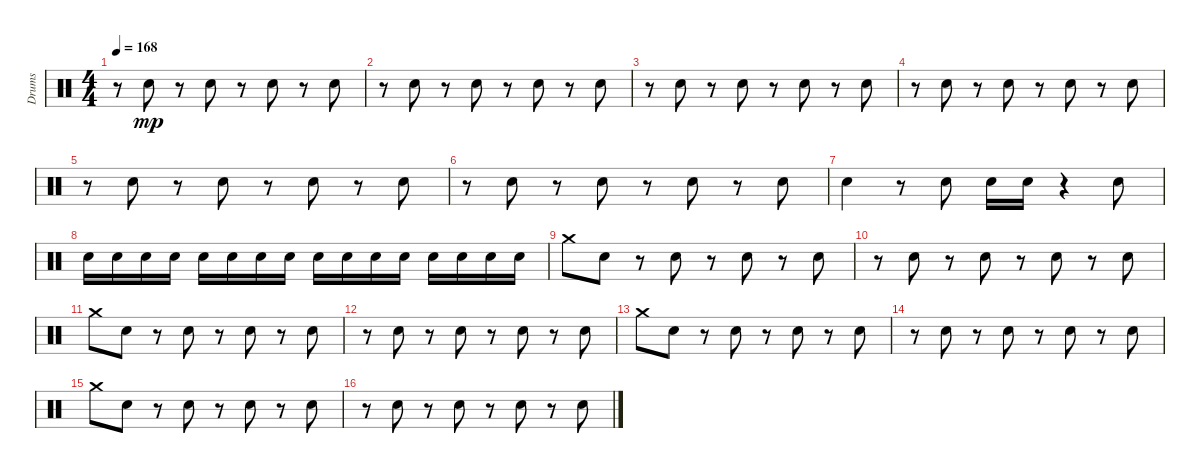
\track ("Drums" "Drums") {instrument percussion}
\staff {score}
\articulation defaults
\ts (4 4)
\tempo 168
\clef neutral
\ks c
r.8{dy mp} "Snare (hit) 2".8 r.8 "Snare (hit) 2".8 r.8 "Snare (hit) 2".8 r.8 "Snare (hit) 2".8 |
r.8 "Snare (hit) 2".8 r.8 "Snare (hit) 2".8 r.8 "Snare (hit) 2".8 r.8 "Snare (hit) 2".8 |
r.8 "Snare (hit) 2".8 r.8 "Snare (hit) 2".8 r.8 "Snare (hit) 2".8 r.8 "Snare (hit) 2".8 |
r.8 "Snare (hit) 2".8 r.8 "Snare (hit) 2".8 r.8 "Snare (hit) 2".8 r.8 "Snare (hit) 2".8 |
r.8 "Snare (hit) 2".8 r.8 "Snare (hit) 2".8 r.8 "Snare (hit) 2".8 r.8 "Snare (hit) 2".8 |
r.8 "Snare (hit) 2".8 r.8 "Snare (hit) 2".8 r.8 "Snare (hit) 2".8 r.8 "Snare (hit) 2".8 |
"Snare (hit) 2".4 r.8 "Snare (hit) 2".8 "Snare (hit) 2".16 "Snare (hit) 2".16 r.4 "Snare (hit) 2".8 |
"Snare (hit) 2".16 "Snare (hit) 2".16 "Snare (hit) 2".16 "Snare (hit) 2".16 "Snare (hit) 2".16 "Snare (hit) 2".16 "Snare (hit) 2".16 "Snare (hit) 2".16 "Snare (hit) 2".16 "Snare (hit) 2".16 "Snare (hit) 2".16 "Snare (hit) 2".16 "Snare (hit) 2".16 "Snare (hit) 2".16 "Snare (hit) 2".16 "Snare (hit) 2".16 |
"Crash medium (hit)".8 "Snare (hit) 2".8 r.8 "Snare (hit) 2".8 r.8 "Snare (hit) 2".8 r.8 "Snare (hit) 2".8 |
r.8 "Snare (hit) 2".8 r.8 "Snare (hit) 2".8 r.8 "Snare (hit) 2".8 r.8 "Snare (hit) 2".8 |
"Crash medium (hit)".8 "Snare (hit) 2".8 r.8 "Snare (hit) 2".8 r.8 "Snare (hit) 2".8 r.8 "Snare (hit) 2".8 |
r.8 "Snare (hit) 2".8 r.8 "Snare (hit) 2".8 r.8 "Snare (hit) 2".8 r.8 "Snare (hit) 2".8 |
"Crash medium (hit)".8 "Snare (hit) 2".8 r.8 "Snare (hit) 2".8 r.8 "Snare (hit) 2".8 r.8 "Snare (hit) 2".8 |
r.8 "Snare (hit) 2".8 r.8 "Snare (hit) 2".8 r.8 "Snare (hit) 2".8 r.8 "Snare (hit) 2".8 |
"Crash medium (hit)".8 "Snare (hit) 2".8 r.8 "Snare (hit) 2".8 r.8 "Snare (hit) 2".8 r.8 "Snare (hit) 2".8 |
r.8 "Snare (hit) 2".8 r.8 "Snare (hit) 2".8 r.8 "Snare (hit) 2".8 r.8 "Snare (hit) 2".8
